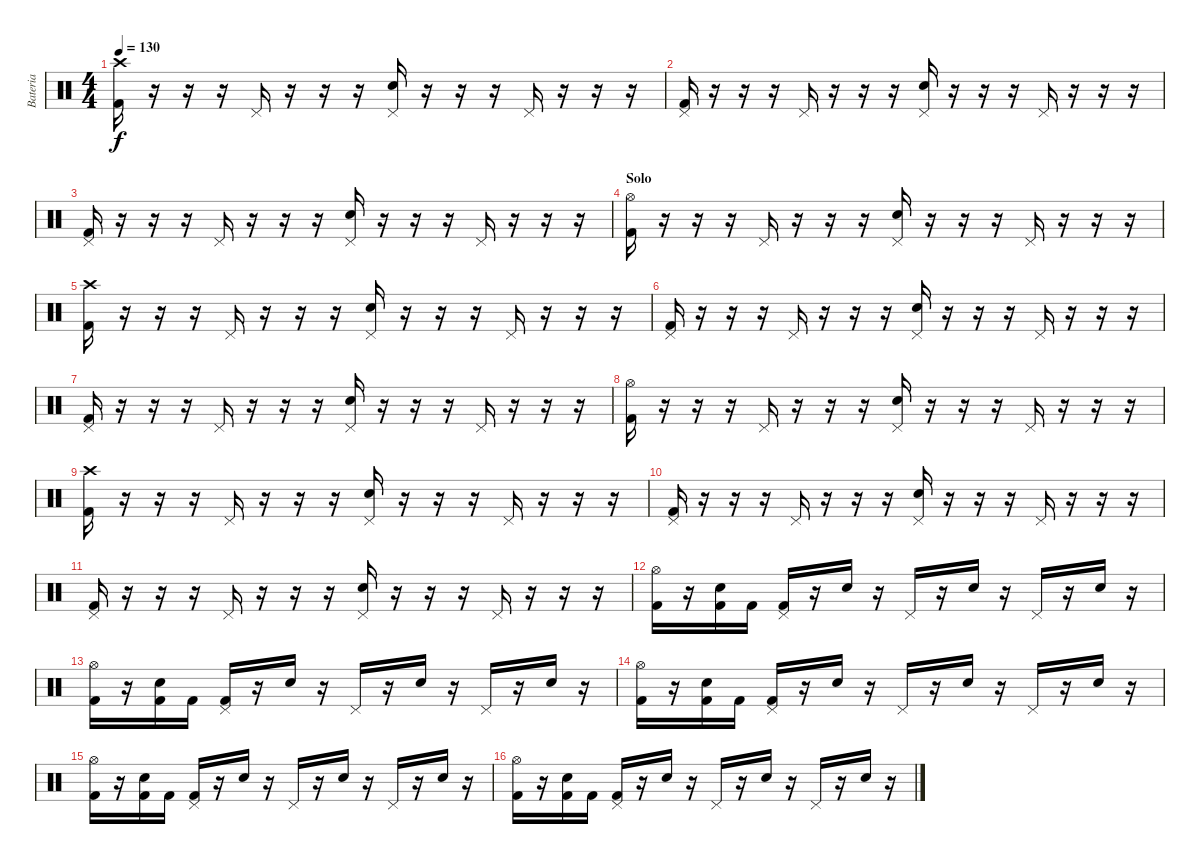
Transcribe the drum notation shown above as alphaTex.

\track ("Bateria" "Bateria") {instrument percussion}
\staff {score}
\articulation defaults
\ts (4 4)
\tempo 130
\clef neutral
\ks c
("Crash high (hit)" "Kick (hit) 2").16{dy f} r.16 r.16 r.16 "Pedal Hi-Hat (hit)".16 r.16 r.16 r.16 ("Pedal Hi-Hat (hit)" "Snare (hit) 2").16 r.16 r.16 r.16 "Pedal Hi-Hat (hit)".16 r.16 r.16 r.16 |
("Pedal Hi-Hat (hit)" "Kick (hit) 2").16 r.16 r.16 r.16 "Pedal Hi-Hat (hit)".16 r.16 r.16 r.16 ("Pedal Hi-Hat (hit)" "Snare (hit) 2").16 r.16 r.16 r.16 "Pedal Hi-Hat (hit)".16 r.16 r.16 r.16 |
("Pedal Hi-Hat (hit)" "Kick (hit) 2").16 r.16 r.16 r.16 "Pedal Hi-Hat (hit)".16 r.16 r.16 r.16 ("Pedal Hi-Hat (hit)" "Snare (hit) 2").16 r.16 r.16 r.16 "Pedal Hi-Hat (hit)".16 r.16 r.16 r.16 |
\section ("" "Solo")
("Hi-Hat (open)" "Kick (hit) 2").16 r.16 r.16 r.16 "Pedal Hi-Hat (hit)".16 r.16 r.16 r.16 ("Pedal Hi-Hat (hit)" "Snare (hit) 2").16 r.16 r.16 r.16 "Pedal Hi-Hat (hit)".16 r.16 r.16 r.16 |
("Crash high (hit)" "Kick (hit) 2").16 r.16 r.16 r.16 "Pedal Hi-Hat (hit)".16 r.16 r.16 r.16 ("Pedal Hi-Hat (hit)" "Snare (hit) 2").16 r.16 r.16 r.16 "Pedal Hi-Hat (hit)".16 r.16 r.16 r.16 |
("Pedal Hi-Hat (hit)" "Kick (hit) 2").16 r.16 r.16 r.16 "Pedal Hi-Hat (hit)".16 r.16 r.16 r.16 ("Pedal Hi-Hat (hit)" "Snare (hit) 2").16 r.16 r.16 r.16 "Pedal Hi-Hat (hit)".16 r.16 r.16 r.16 |
("Pedal Hi-Hat (hit)" "Kick (hit) 2").16 r.16 r.16 r.16 "Pedal Hi-Hat (hit)".16 r.16 r.16 r.16 ("Pedal Hi-Hat (hit)" "Snare (hit) 2").16 r.16 r.16 r.16 "Pedal Hi-Hat (hit)".16 r.16 r.16 r.16 |
("Hi-Hat (open)" "Kick (hit) 2").16 r.16 r.16 r.16 "Pedal Hi-Hat (hit)".16 r.16 r.16 r.16 ("Pedal Hi-Hat (hit)" "Snare (hit) 2").16 r.16 r.16 r.16 "Pedal Hi-Hat (hit)".16 r.16 r.16 r.16 |
("Crash high (hit)" "Kick (hit) 2").16 r.16 r.16 r.16 "Pedal Hi-Hat (hit)".16 r.16 r.16 r.16 ("Pedal Hi-Hat (hit)" "Snare (hit) 2").16 r.16 r.16 r.16 "Pedal Hi-Hat (hit)".16 r.16 r.16 r.16 |
("Pedal Hi-Hat (hit)" "Kick (hit) 2").16 r.16 r.16 r.16 "Pedal Hi-Hat (hit)".16 r.16 r.16 r.16 ("Pedal Hi-Hat (hit)" "Snare (hit) 2").16 r.16 r.16 r.16 "Pedal Hi-Hat (hit)".16 r.16 r.16 r.16 |
("Pedal Hi-Hat (hit)" "Kick (hit) 2").16 r.16 r.16 r.16 "Pedal Hi-Hat (hit)".16 r.16 r.16 r.16 ("Pedal Hi-Hat (hit)" "Snare (hit) 2").16 r.16 r.16 r.16 "Pedal Hi-Hat (hit)".16 r.16 r.16 r.16 |
("Hi-Hat (open)" "Kick (hit) 2").16 r.16 ("Snare (hit) 2" "Kick (hit) 2").16 "Kick (hit) 2".16 ("Pedal Hi-Hat (hit)" "Kick (hit) 2").16 r.16 "Snare (hit) 2".16 r.16 "Pedal Hi-Hat (hit)".16 r.16 "Snare (hit) 2".16 r.16 "Pedal Hi-Hat (hit)".16 r.16 "Snare (hit) 2".16 r.16 |
("Hi-Hat (open)" "Kick (hit) 2").16 r.16 ("Snare (hit) 2" "Kick (hit) 2").16 "Kick (hit) 2".16 ("Pedal Hi-Hat (hit)" "Kick (hit) 2").16 r.16 "Snare (hit) 2".16 r.16 "Pedal Hi-Hat (hit)".16 r.16 "Snare (hit) 2".16 r.16 "Pedal Hi-Hat (hit)".16 r.16 "Snare (hit) 2".16 r.16 |
("Hi-Hat (open)" "Kick (hit) 2").16 r.16 ("Snare (hit) 2" "Kick (hit) 2").16 "Kick (hit) 2".16 ("Pedal Hi-Hat (hit)" "Kick (hit) 2").16 r.16 "Snare (hit) 2".16 r.16 "Pedal Hi-Hat (hit)".16 r.16 "Snare (hit) 2".16 r.16 "Pedal Hi-Hat (hit)".16 r.16 "Snare (hit) 2".16 r.16 |
("Hi-Hat (open)" "Kick (hit) 2").16 r.16 ("Snare (hit) 2" "Kick (hit) 2").16 "Kick (hit) 2".16 ("Pedal Hi-Hat (hit)" "Kick (hit) 2").16 r.16 "Snare (hit) 2".16 r.16 "Pedal Hi-Hat (hit)".16 r.16 "Snare (hit) 2".16 r.16 "Pedal Hi-Hat (hit)".16 r.16 "Snare (hit) 2".16 r.16 |
("Hi-Hat (open)" "Kick (hit) 2").16 r.16 ("Snare (hit) 2" "Kick (hit) 2").16 "Kick (hit) 2".16 ("Pedal Hi-Hat (hit)" "Kick (hit) 2").16 r.16 "Snare (hit) 2".16 r.16 "Pedal Hi-Hat (hit)".16 r.16 "Snare (hit) 2".16 r.16 "Pedal Hi-Hat (hit)".16 r.16 "Snare (hit) 2".16 r.16
